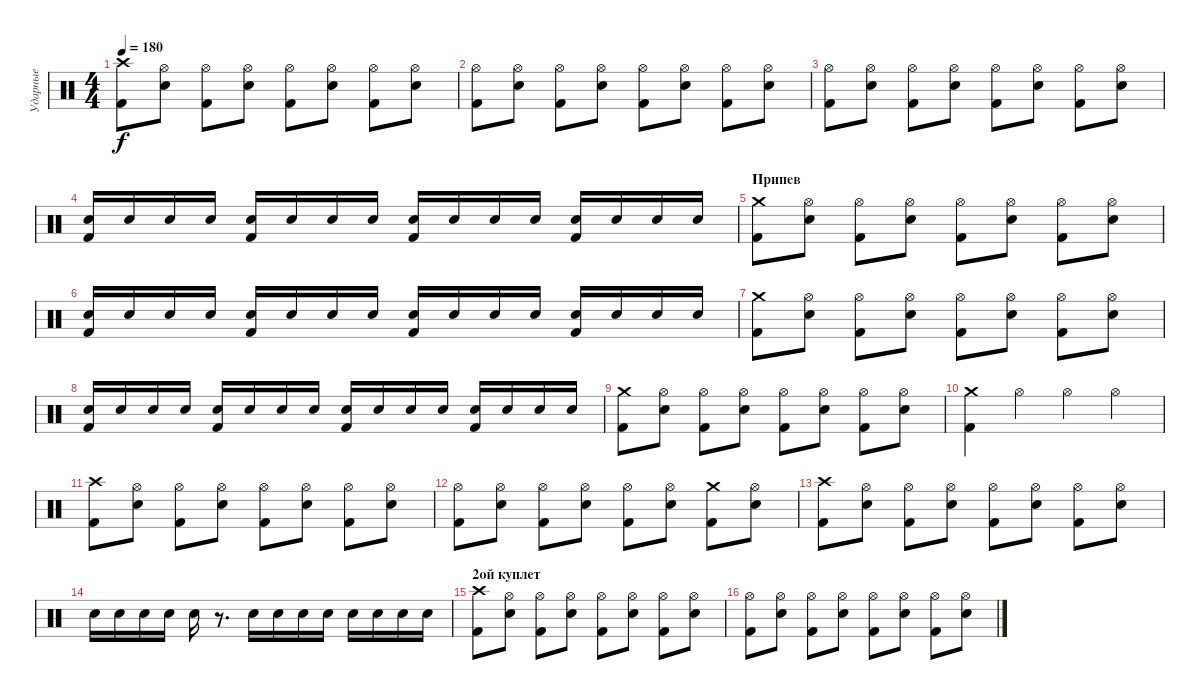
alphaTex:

\track ("Ударные" "Ударные") {instrument percussion}
\staff {score}
\articulation defaults
\ts (4 4)
\tempo 180
\clef neutral
\ks c
("Crash high (hit)" "Kick (hit) 2").8{dy f} ("Hi-Hat (open)" "Electric Snare (hit)").8 ("Hi-Hat (open)" "Kick (hit) 2").8 ("Hi-Hat (open)" "Electric Snare (hit)").8 ("Hi-Hat (open)" "Kick (hit) 2").8 ("Hi-Hat (open)" "Electric Snare (hit)").8 ("Hi-Hat (open)" "Kick (hit) 2").8 ("Hi-Hat (open)" "Electric Snare (hit)").8 |
("Hi-Hat (open)" "Kick (hit) 2").8 ("Hi-Hat (open)" "Electric Snare (hit)").8 ("Hi-Hat (open)" "Kick (hit) 2").8 ("Hi-Hat (open)" "Electric Snare (hit)").8 ("Hi-Hat (open)" "Kick (hit) 2").8 ("Hi-Hat (open)" "Electric Snare (hit)").8 ("Hi-Hat (open)" "Kick (hit) 2").8 ("Hi-Hat (open)" "Electric Snare (hit)").8 |
("Hi-Hat (open)" "Kick (hit) 2").8 ("Hi-Hat (open)" "Electric Snare (hit)").8 ("Hi-Hat (open)" "Kick (hit) 2").8 ("Hi-Hat (open)" "Electric Snare (hit)").8 ("Hi-Hat (open)" "Kick (hit) 2").8 ("Hi-Hat (open)" "Electric Snare (hit)").8 ("Hi-Hat (open)" "Kick (hit) 2").8 ("Hi-Hat (open)" "Electric Snare (hit)").8 |
("Electric Snare (hit)" "Kick (hit) 2").16 "Electric Snare (hit)".16 "Electric Snare (hit)".16 "Electric Snare (hit)".16 ("Electric Snare (hit)" "Kick (hit) 2").16 "Electric Snare (hit)".16 "Electric Snare (hit)".16 "Electric Snare (hit)".16 ("Electric Snare (hit)" "Kick (hit) 2").16 "Electric Snare (hit)".16 "Electric Snare (hit)".16 "Electric Snare (hit)".16 ("Electric Snare (hit)" "Kick (hit) 2").16 "Electric Snare (hit)".16 "Electric Snare (hit)".16 "Electric Snare (hit)".16 |
\section ("" "Припев")
("Crash medium (hit)" "Kick (hit) 2").8 ("Hi-Hat (open)" "Electric Snare (hit)").8 ("Hi-Hat (open)" "Kick (hit) 2").8 ("Hi-Hat (open)" "Electric Snare (hit)").8 ("Hi-Hat (open)" "Kick (hit) 2").8 ("Hi-Hat (open)" "Electric Snare (hit)").8 ("Hi-Hat (open)" "Kick (hit) 2").8 ("Hi-Hat (open)" "Electric Snare (hit)").8 |
("Electric Snare (hit)" "Kick (hit) 2").16 "Electric Snare (hit)".16 "Electric Snare (hit)".16 "Electric Snare (hit)".16 ("Electric Snare (hit)" "Kick (hit) 2").16 "Electric Snare (hit)".16 "Electric Snare (hit)".16 "Electric Snare (hit)".16 ("Electric Snare (hit)" "Kick (hit) 2").16 "Electric Snare (hit)".16 "Electric Snare (hit)".16 "Electric Snare (hit)".16 ("Electric Snare (hit)" "Kick (hit) 2").16 "Electric Snare (hit)".16 "Electric Snare (hit)".16 "Electric Snare (hit)".16 |
("Crash medium (hit)" "Kick (hit) 2").8 ("Hi-Hat (open)" "Electric Snare (hit)").8 ("Hi-Hat (open)" "Kick (hit) 2").8 ("Hi-Hat (open)" "Electric Snare (hit)").8 ("Hi-Hat (open)" "Kick (hit) 2").8 ("Hi-Hat (open)" "Electric Snare (hit)").8 ("Hi-Hat (open)" "Kick (hit) 2").8 ("Hi-Hat (open)" "Electric Snare (hit)").8 |
("Electric Snare (hit)" "Kick (hit) 2").16 "Electric Snare (hit)".16 "Electric Snare (hit)".16 "Electric Snare (hit)".16 ("Electric Snare (hit)" "Kick (hit) 2").16 "Electric Snare (hit)".16 "Electric Snare (hit)".16 "Electric Snare (hit)".16 ("Electric Snare (hit)" "Kick (hit) 2").16 "Electric Snare (hit)".16 "Electric Snare (hit)".16 "Electric Snare (hit)".16 ("Electric Snare (hit)" "Kick (hit) 2").16 "Electric Snare (hit)".16 "Electric Snare (hit)".16 "Electric Snare (hit)".16 |
("Crash medium (hit)" "Kick (hit) 2").8 ("Hi-Hat (open)" "Electric Snare (hit)").8 ("Hi-Hat (open)" "Kick (hit) 2").8 ("Hi-Hat (open)" "Electric Snare (hit)").8 ("Hi-Hat (open)" "Kick (hit) 2").8 ("Hi-Hat (open)" "Electric Snare (hit)").8 ("Hi-Hat (open)" "Kick (hit) 2").8 ("Hi-Hat (open)" "Electric Snare (hit)").8 |
("Crash medium (hit)" "Kick (hit) 2").4 "Hi-Hat (open)".4 "Hi-Hat (open)".4 "Hi-Hat (open)".4 |
("Crash high (hit)" "Kick (hit) 2").8 ("Hi-Hat (open)" "Electric Snare (hit)").8 ("Hi-Hat (open)" "Kick (hit) 2").8 ("Hi-Hat (open)" "Electric Snare (hit)").8 ("Hi-Hat (open)" "Kick (hit) 2").8 ("Hi-Hat (open)" "Electric Snare (hit)").8 ("Hi-Hat (open)" "Kick (hit) 2").8 ("Hi-Hat (open)" "Electric Snare (hit)").8 |
("Hi-Hat (open)" "Kick (hit) 2").8 ("Hi-Hat (open)" "Electric Snare (hit)").8 ("Hi-Hat (open)" "Kick (hit) 2").8 ("Hi-Hat (open)" "Electric Snare (hit)").8 ("Hi-Hat (open)" "Kick (hit) 2").8 ("Hi-Hat (open)" "Electric Snare (hit)").8 ("Crash medium (hit)" "Kick (hit) 2").8 ("Hi-Hat (open)" "Electric Snare (hit)").8 |
("Crash high (hit)" "Kick (hit) 2").8 ("Hi-Hat (open)" "Electric Snare (hit)").8 ("Hi-Hat (open)" "Kick (hit) 2").8 ("Hi-Hat (open)" "Electric Snare (hit)").8 ("Hi-Hat (open)" "Kick (hit) 2").8 ("Hi-Hat (open)" "Electric Snare (hit)").8 ("Hi-Hat (open)" "Kick (hit) 2").8 ("Hi-Hat (open)" "Electric Snare (hit)").8 |
"Electric Snare (hit)".16 "Electric Snare (hit)".16 "Electric Snare (hit)".16 "Electric Snare (hit)".16 "Electric Snare (hit)".16 r.8{d} "Electric Snare (hit)".16 "Electric Snare (hit)".16 "Electric Snare (hit)".16 "Electric Snare (hit)".16 "Electric Snare (hit)".16 "Electric Snare (hit)".16 "Electric Snare (hit)".16 "Electric Snare (hit)".16 |
\section ("" "2ой куплет")
("Crash high (hit)" "Kick (hit) 2").8 ("Hi-Hat (open)" "Electric Snare (hit)").8 ("Hi-Hat (open)" "Kick (hit) 2").8 ("Hi-Hat (open)" "Electric Snare (hit)").8 ("Hi-Hat (open)" "Kick (hit) 2").8 ("Hi-Hat (open)" "Electric Snare (hit)").8 ("Hi-Hat (open)" "Kick (hit) 2").8 ("Hi-Hat (open)" "Electric Snare (hit)").8 |
("Hi-Hat (open)" "Kick (hit) 2").8 ("Hi-Hat (open)" "Electric Snare (hit)").8 ("Hi-Hat (open)" "Kick (hit) 2").8 ("Hi-Hat (open)" "Electric Snare (hit)").8 ("Hi-Hat (open)" "Kick (hit) 2").8 ("Hi-Hat (open)" "Electric Snare (hit)").8 ("Hi-Hat (open)" "Kick (hit) 2").8 ("Hi-Hat (open)" "Electric Snare (hit)").8
